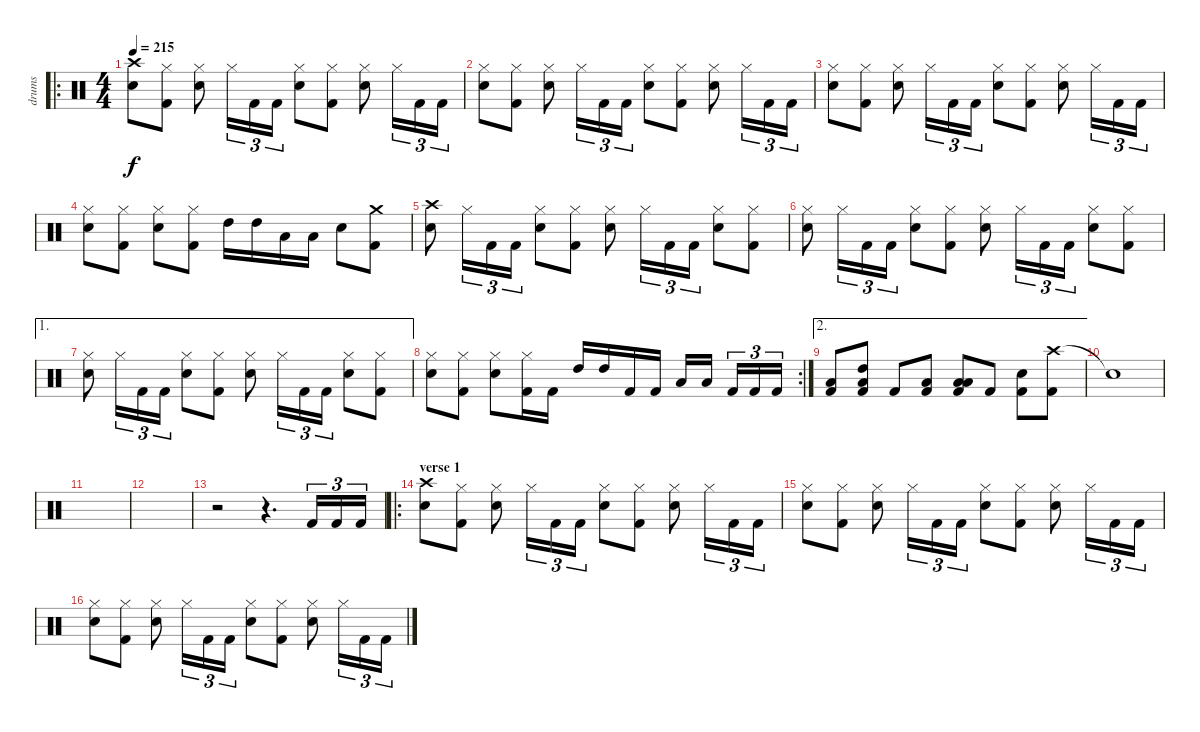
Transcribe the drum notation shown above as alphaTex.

\track ("drums" "drums") {instrument percussion}
\staff {score}
\articulation defaults
\ro
\ts (4 4)
\tempo 215
\clef neutral
\ks c
("Crash high (hit)" "Electric Snare (hit)").8{dy f} ("Hi-Hat (closed)" "Kick (hit) 2").8 ("Hi-Hat (closed)" "Electric Snare (hit)").8 "Hi-Hat (closed)".16{tu (3 2)} "Kick (hit) 2".16{tu (3 2)} "Kick (hit) 2".16{tu (3 2)} ("Hi-Hat (closed)" "Electric Snare (hit)").8 ("Hi-Hat (closed)" "Kick (hit) 2").8 ("Hi-Hat (closed)" "Electric Snare (hit)").8 "Hi-Hat (closed)".16{tu (3 2)} "Kick (hit) 2".16{tu (3 2)} "Kick (hit) 2".16{tu (3 2)} |
("Hi-Hat (closed)" "Electric Snare (hit)").8 ("Hi-Hat (closed)" "Kick (hit) 2").8 ("Hi-Hat (closed)" "Electric Snare (hit)").8 "Hi-Hat (closed)".16{tu (3 2)} "Kick (hit) 2".16{tu (3 2)} "Kick (hit) 2".16{tu (3 2)} ("Hi-Hat (closed)" "Electric Snare (hit)").8 ("Hi-Hat (closed)" "Kick (hit) 2").8 ("Hi-Hat (closed)" "Electric Snare (hit)").8 "Hi-Hat (closed)".16{tu (3 2)} "Kick (hit) 2".16{tu (3 2)} "Kick (hit) 2".16{tu (3 2)} |
("Hi-Hat (closed)" "Electric Snare (hit)").8 ("Hi-Hat (closed)" "Kick (hit) 2").8 ("Hi-Hat (closed)" "Electric Snare (hit)").8 "Hi-Hat (closed)".16{tu (3 2)} "Kick (hit) 2".16{tu (3 2)} "Kick (hit) 2".16{tu (3 2)} ("Hi-Hat (closed)" "Electric Snare (hit)").8 ("Hi-Hat (closed)" "Kick (hit) 2").8 ("Hi-Hat (closed)" "Electric Snare (hit)").8 "Hi-Hat (closed)".16{tu (3 2)} "Kick (hit) 2".16{tu (3 2)} "Kick (hit) 2".16{tu (3 2)} |
("Hi-Hat (closed)" "Electric Snare (hit)").8 ("Hi-Hat (closed)" "Kick (hit) 2").8 ("Hi-Hat (closed)" "Electric Snare (hit)").8 ("Hi-Hat (closed)" "Kick (hit) 2").8 "High Tom (hit)".16 "High Tom (hit)".16 "Low Tom (hit)".16 "Low Tom (hit)".16 "Electric Snare (hit)".8 ("Crash medium (hit)" "Kick (hit) 2").8 |
("Crash high (hit)" "Electric Snare (hit)").8 "Hi-Hat (closed)".16{tu (3 2)} "Kick (hit) 2".16{tu (3 2)} "Kick (hit) 2".16{tu (3 2)} ("Hi-Hat (closed)" "Electric Snare (hit)").8 ("Hi-Hat (closed)" "Kick (hit) 2").8 ("Hi-Hat (closed)" "Electric Snare (hit)").8 "Hi-Hat (closed)".16{tu (3 2)} "Kick (hit) 2".16{tu (3 2)} "Kick (hit) 2".16{tu (3 2)} ("Hi-Hat (closed)" "Electric Snare (hit)").8 ("Hi-Hat (closed)" "Kick (hit) 2").8 |
("Hi-Hat (closed)" "Electric Snare (hit)").8 "Hi-Hat (closed)".16{tu (3 2)} "Kick (hit) 2".16{tu (3 2)} "Kick (hit) 2".16{tu (3 2)} ("Hi-Hat (closed)" "Electric Snare (hit)").8 ("Hi-Hat (closed)" "Kick (hit) 2").8 ("Hi-Hat (closed)" "Electric Snare (hit)").8 "Hi-Hat (closed)".16{tu (3 2)} "Kick (hit) 2".16{tu (3 2)} "Kick (hit) 2".16{tu (3 2)} ("Hi-Hat (closed)" "Electric Snare (hit)").8 ("Hi-Hat (closed)" "Kick (hit) 2").8 |
\ae 1
("Hi-Hat (closed)" "Electric Snare (hit)").8 "Hi-Hat (closed)".16{tu (3 2)} "Kick (hit) 2".16{tu (3 2)} "Kick (hit) 2".16{tu (3 2)} ("Hi-Hat (closed)" "Electric Snare (hit)").8 ("Hi-Hat (closed)" "Kick (hit) 2").8 ("Hi-Hat (closed)" "Electric Snare (hit)").8 "Hi-Hat (closed)".16{tu (3 2)} "Kick (hit) 2".16{tu (3 2)} "Kick (hit) 2".16{tu (3 2)} ("Hi-Hat (closed)" "Electric Snare (hit)").8 ("Hi-Hat (closed)" "Kick (hit) 2").8 |
\rc 2
("Hi-Hat (closed)" "Electric Snare (hit)").8 ("Hi-Hat (closed)" "Kick (hit) 2").8 ("Hi-Hat (closed)" "Electric Snare (hit)").8 ("Hi-Hat (closed)" "Kick (hit) 2").16 "Kick (hit) 2".16 "High Tom (hit)".16 "High Tom (hit)".16 "Kick (hit) 2".16 "Kick (hit) 2".16 "Low Tom (hit)".16 "Low Tom (hit)".16 "Kick (hit) 2".16{tu (3 2)} "Kick (hit) 2".16{tu (3 2)} "Kick (hit) 2".16{tu (3 2)} |
\ae 2
("Low Floor Tom (hit)" "Kick (hit) 2").8 ("High Tom (hit)" "Low Floor Tom (hit)" "Kick (hit) 2").8 "Kick (hit) 2".8 ("Low Floor Tom (hit)" "Kick (hit) 2").8 ("Low Tom (hit)" "Low Floor Tom (hit)" "Kick (hit) 2").8 "Kick (hit) 2".8 ("Electric Snare (hit)" "Kick (hit) 2").8 ("Crash high (hit)" "Kick (hit) 2").8 |
"Snare (hit)"{t}.1 |
|
|
r.2 r.4{d} "Kick (hit) 2".16{tu (3 2)} "Kick (hit) 2".16{tu (3 2)} "Kick (hit) 2".16{tu (3 2)} |
\ro
\section ("" "verse 1")
("Crash high (hit)" "Electric Snare (hit)").8 ("Hi-Hat (closed)" "Kick (hit) 2").8 ("Hi-Hat (closed)" "Electric Snare (hit)").8 "Hi-Hat (closed)".16{tu (3 2)} "Kick (hit) 2".16{tu (3 2)} "Kick (hit) 2".16{tu (3 2)} ("Hi-Hat (closed)" "Electric Snare (hit)").8 ("Hi-Hat (closed)" "Kick (hit) 2").8 ("Hi-Hat (closed)" "Electric Snare (hit)").8 "Hi-Hat (closed)".16{tu (3 2)} "Kick (hit) 2".16{tu (3 2)} "Kick (hit) 2".16{tu (3 2)} |
("Hi-Hat (closed)" "Electric Snare (hit)").8 ("Hi-Hat (closed)" "Kick (hit) 2").8 ("Hi-Hat (closed)" "Electric Snare (hit)").8 "Hi-Hat (closed)".16{tu (3 2)} "Kick (hit) 2".16{tu (3 2)} "Kick (hit) 2".16{tu (3 2)} ("Hi-Hat (closed)" "Electric Snare (hit)").8 ("Hi-Hat (closed)" "Kick (hit) 2").8 ("Hi-Hat (closed)" "Electric Snare (hit)").8 "Hi-Hat (closed)".16{tu (3 2)} "Kick (hit) 2".16{tu (3 2)} "Kick (hit) 2".16{tu (3 2)} |
("Hi-Hat (closed)" "Electric Snare (hit)").8 ("Hi-Hat (closed)" "Kick (hit) 2").8 ("Hi-Hat (closed)" "Electric Snare (hit)").8 "Hi-Hat (closed)".16{tu (3 2)} "Kick (hit) 2".16{tu (3 2)} "Kick (hit) 2".16{tu (3 2)} ("Hi-Hat (closed)" "Electric Snare (hit)").8 ("Hi-Hat (closed)" "Kick (hit) 2").8 ("Hi-Hat (closed)" "Electric Snare (hit)").8 "Hi-Hat (closed)".16{tu (3 2)} "Kick (hit) 2".16{tu (3 2)} "Kick (hit) 2".16{tu (3 2)}
